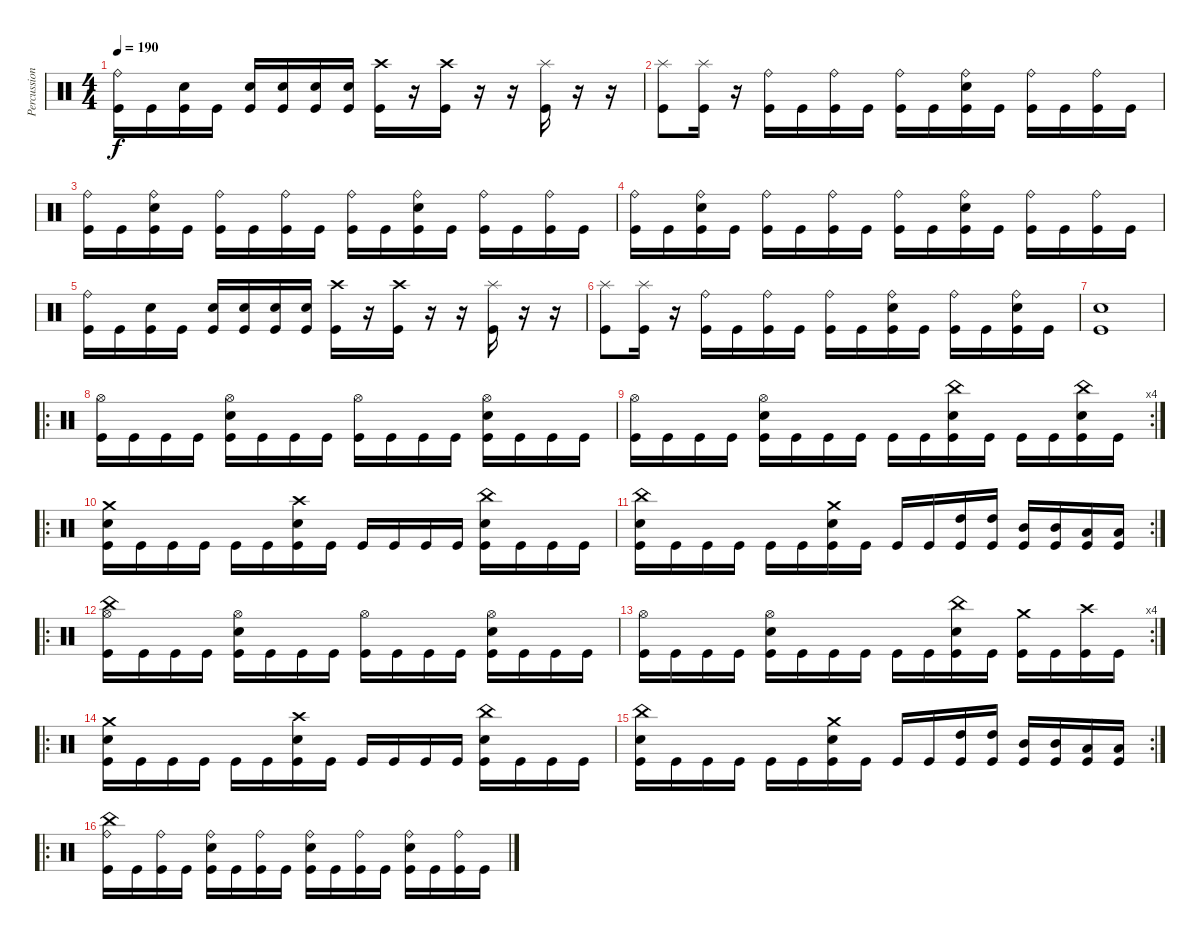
\track ("Percussion" "Percussion") {instrument percussion}
\staff {score}
\articulation defaults
\ts (4 4)
\tempo 190
\clef neutral
\ks c
("Ride (bell)" "Kick (hit)").16{dy f} "Kick (hit)".16 ("Electric Snare (hit)" "Kick (hit)").16 "Kick (hit)".16 ("Electric Snare (hit)" "Kick (hit)").16 ("Electric Snare (hit)" "Kick (hit)").16 ("Electric Snare (hit)" "Kick (hit)").16 ("Electric Snare (hit)" "Kick (hit)").16 ("Crash high (hit)" "Kick (hit)").16 r.16 ("Crash high (hit)" "Kick (hit)").16 r.16 r.16 ("Splash (hit)" "Kick (hit)").16 r.16 r.16 |
("Kick (hit)" "Splash (hit)").8 ("Kick (hit)" "Splash (hit)").16 r.16 ("Ride (bell)" "Kick (hit)").16 "Kick (hit)".16 ("Ride (bell)" "Kick (hit)").16 "Kick (hit)".16 ("Ride (bell)" "Kick (hit)").16 "Kick (hit)".16 ("Ride (bell)" "Electric Snare (hit)" "Kick (hit)").16 "Kick (hit)".16 ("Ride (bell)" "Kick (hit)").16 "Kick (hit)".16 ("Ride (bell)" "Kick (hit)").16 "Kick (hit)".16 |
("Ride (bell)" "Kick (hit)").16 "Kick (hit)".16 ("Ride (bell)" "Electric Snare (hit)" "Kick (hit)").16 "Kick (hit)".16 ("Ride (bell)" "Kick (hit)").16 "Kick (hit)".16 ("Ride (bell)" "Kick (hit)").16 "Kick (hit)".16 ("Ride (bell)" "Kick (hit)").16 "Kick (hit)".16 ("Ride (bell)" "Electric Snare (hit)" "Kick (hit)").16 "Kick (hit)".16 ("Ride (bell)" "Kick (hit)").16 "Kick (hit)".16 ("Ride (bell)" "Kick (hit)").16 "Kick (hit)".16 |
("Ride (bell)" "Kick (hit)").16 "Kick (hit)".16 ("Ride (bell)" "Electric Snare (hit)" "Kick (hit)").16 "Kick (hit)".16 ("Ride (bell)" "Kick (hit)").16 "Kick (hit)".16 ("Ride (bell)" "Kick (hit)").16 "Kick (hit)".16 ("Ride (bell)" "Kick (hit)").16 "Kick (hit)".16 ("Ride (bell)" "Electric Snare (hit)" "Kick (hit)").16 "Kick (hit)".16 ("Ride (bell)" "Kick (hit)").16 "Kick (hit)".16 ("Ride (bell)" "Kick (hit)").16 "Kick (hit)".16 |
("Ride (bell)" "Kick (hit)").16 "Kick (hit)".16 ("Electric Snare (hit)" "Kick (hit)").16 "Kick (hit)".16 ("Electric Snare (hit)" "Kick (hit)").16 ("Electric Snare (hit)" "Kick (hit)").16 ("Electric Snare (hit)" "Kick (hit)").16 ("Electric Snare (hit)" "Kick (hit)").16 ("Crash high (hit)" "Kick (hit)").16 r.16 ("Crash high (hit)" "Kick (hit)").16 r.16 r.16 ("Splash (hit)" "Kick (hit)").16 r.16 r.16 |
("Kick (hit)" "Splash (hit)").8 ("Kick (hit)" "Splash (hit)").16 r.16 ("Ride (bell)" "Kick (hit)").16 "Kick (hit)".16 ("Ride (bell)" "Kick (hit)").16 "Kick (hit)".16 ("Ride (bell)" "Kick (hit)").16 "Kick (hit)".16 ("Ride (bell)" "Electric Snare (hit)" "Kick (hit)").16 "Kick (hit)".16 ("Ride (bell)" "Kick (hit)").16 "Kick (hit)".16 ("Ride (bell)" "Electric Snare (hit)" "Kick (hit)").16 "Kick (hit)".16 |
("Electric Snare (hit)" "Kick (hit)").1 |
\ro
("Hi-Hat (open)" "Kick (hit)").16 "Kick (hit)".16 "Kick (hit)".16 "Kick (hit)".16 ("Electric Snare (hit)" "Hi-Hat (open)" "Kick (hit)").16 "Kick (hit)".16 "Kick (hit)".16 "Kick (hit)".16 ("Hi-Hat (open)" "Kick (hit)").16 "Kick (hit)".16 "Kick (hit)".16 "Kick (hit)".16 ("Electric Snare (hit)" "Hi-Hat (open)" "Kick (hit)").16 "Kick (hit)".16 "Kick (hit)".16 "Kick (hit)".16 |
\rc 4
("Hi-Hat (open)" "Kick (hit)").16 "Kick (hit)".16 "Kick (hit)".16 "Kick (hit)".16 ("Electric Snare (hit)" "Hi-Hat (open)" "Kick (hit)").16 "Kick (hit)".16 "Kick (hit)".16 "Kick (hit)".16 "Kick (hit)".16 "Kick (hit)".16 ("Electric Snare (hit)" "China (hit)" "Kick (hit)").16 "Kick (hit)".16 "Kick (hit)".16 "Kick (hit)".16 ("Electric Snare (hit)" "China (hit)" "Kick (hit)").16 "Kick (hit)".16 |
\ro
("Electric Snare (hit)" "Crash medium (hit)" "Kick (hit)").16 "Kick (hit)".16 "Kick (hit)".16 "Kick (hit)".16 "Kick (hit)".16 "Kick (hit)".16 ("Electric Snare (hit)" "Crash high (hit)" "Kick (hit)").16 "Kick (hit)".16 "Kick (hit)".16 "Kick (hit)".16 "Kick (hit)".16 "Kick (hit)".16 ("Electric Snare (hit)" "China (hit)" "Kick (hit)").16 "Kick (hit)".16 "Kick (hit)".16 "Kick (hit)".16 |
\rc 2
("Electric Snare (hit)" "China (hit)" "Kick (hit)").16 "Kick (hit)".16 "Kick (hit)".16 "Kick (hit)".16 "Kick (hit)".16 "Kick (hit)".16 ("Electric Snare (hit)" "Crash medium (hit)" "Kick (hit)").16 "Kick (hit)".16 "Kick (hit)".16 "Kick (hit)".16 ("High Tom (hit)" "Kick (hit)").16 ("High Tom (hit)" "Kick (hit)").16 ("Mid Tom (hit)" "Kick (hit)").16 ("Mid Tom (hit)" "Kick (hit)").16 ("Low Tom (hit)" "Kick (hit)").16 ("Low Tom (hit)" "Kick (hit)").16 |
\ro
("China (hit)" "Hi-Hat (open)" "Kick (hit)").16 "Kick (hit)".16 "Kick (hit)".16 "Kick (hit)".16 ("Electric Snare (hit)" "Hi-Hat (open)" "Kick (hit)").16 "Kick (hit)".16 "Kick (hit)".16 "Kick (hit)".16 ("Hi-Hat (open)" "Kick (hit)").16 "Kick (hit)".16 "Kick (hit)".16 "Kick (hit)".16 ("Electric Snare (hit)" "Hi-Hat (open)" "Kick (hit)").16 "Kick (hit)".16 "Kick (hit)".16 "Kick (hit)".16 |
\rc 4
("Hi-Hat (open)" "Kick (hit)").16 "Kick (hit)".16 "Kick (hit)".16 "Kick (hit)".16 ("Electric Snare (hit)" "Hi-Hat (open)" "Kick (hit)").16 "Kick (hit)".16 "Kick (hit)".16 "Kick (hit)".16 "Kick (hit)".16 "Kick (hit)".16 ("Electric Snare (hit)" "China (hit)" "Kick (hit)").16 "Kick (hit)".16 ("Crash medium (hit)" "Kick (hit)").16 "Kick (hit)".16 ("Crash high (hit)" "Kick (hit)").16 "Kick (hit)".16 |
\ro
("Electric Snare (hit)" "Crash medium (hit)" "Kick (hit)").16 "Kick (hit)".16 "Kick (hit)".16 "Kick (hit)".16 "Kick (hit)".16 "Kick (hit)".16 ("Electric Snare (hit)" "Crash high (hit)" "Kick (hit)").16 "Kick (hit)".16 "Kick (hit)".16 "Kick (hit)".16 "Kick (hit)".16 "Kick (hit)".16 ("Electric Snare (hit)" "China (hit)" "Kick (hit)").16 "Kick (hit)".16 "Kick (hit)".16 "Kick (hit)".16 |
\rc 2
("Electric Snare (hit)" "China (hit)" "Kick (hit)").16 "Kick (hit)".16 "Kick (hit)".16 "Kick (hit)".16 "Kick (hit)".16 "Kick (hit)".16 ("Electric Snare (hit)" "Crash medium (hit)" "Kick (hit)").16 "Kick (hit)".16 "Kick (hit)".16 "Kick (hit)".16 ("High Tom (hit)" "Kick (hit)").16 ("High Tom (hit)" "Kick (hit)").16 ("Mid Tom (hit)" "Kick (hit)").16 ("Mid Tom (hit)" "Kick (hit)").16 ("Low Tom (hit)" "Kick (hit)").16 ("Low Tom (hit)" "Kick (hit)").16 |
\ro
("China (hit)" "Ride (bell)" "Kick (hit)").16 "Kick (hit)".16 ("Ride (bell)" "Kick (hit)").16 "Kick (hit)".16 ("Electric Snare (hit)" "Ride (bell)" "Kick (hit)").16 "Kick (hit)".16 ("Ride (bell)" "Kick (hit)").16 "Kick (hit)".16 ("Electric Snare (hit)" "Ride (bell)" "Kick (hit)").16 "Kick (hit)".16 ("Ride (bell)" "Kick (hit)").16 "Kick (hit)".16 ("Electric Snare (hit)" "Ride (bell)" "Kick (hit)").16 "Kick (hit)".16 ("Ride (bell)" "Kick (hit)").16 "Kick (hit)".16
